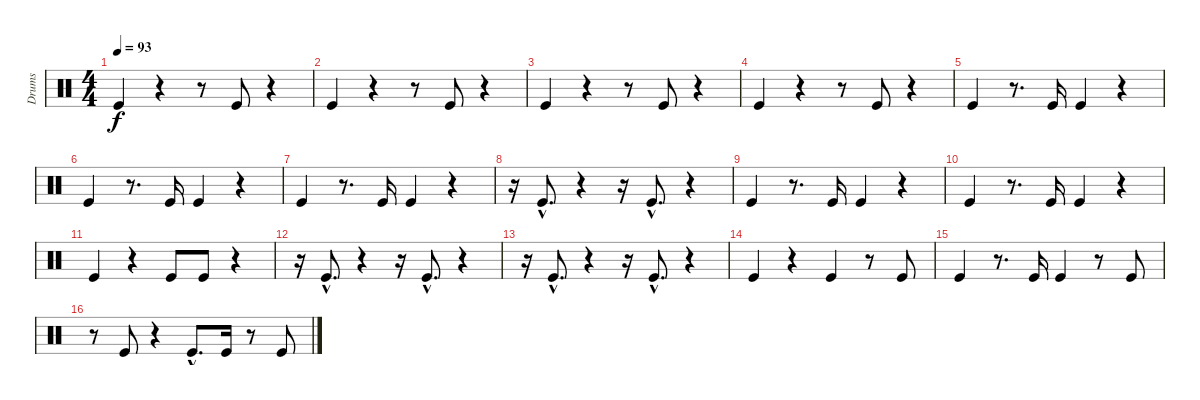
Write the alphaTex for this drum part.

\track ("Drums" "Drums") {instrument percussion}
\staff {score}
\articulation defaults
\ts (4 4)
\tempo 93
\clef neutral
\ks c "Kick (hit)".4{dy f}
r.4 r.8 "Kick (hit)".8 r.4 |
"Kick (hit)".4 r.4 r.8 "Kick (hit)".8 r.4 |
"Kick (hit)".4 r.4 r.8 "Kick (hit)".8 r.4 |
"Kick (hit)".4 r.4 r.8 "Kick (hit)".8 r.4 |
"Kick (hit)".4 r.8{d} "Kick (hit)".16 "Kick (hit)".4 r.4 |
"Kick (hit)".4 r.8{d} "Kick (hit)".16 "Kick (hit)".4 r.4 |
"Kick (hit)".4 r.8{d} "Kick (hit)".16 "Kick (hit)".4 r.4 |
r.16 "Kick (hit)"{hac}.8{d} r.4 r.16 "Kick (hit)"{hac}.8{d} r.4 |
"Kick (hit)".4 r.8{d} "Kick (hit)".16 "Kick (hit)".4 r.4 |
"Kick (hit)".4 r.8{d} "Kick (hit)".16 "Kick (hit)".4 r.4 |
"Kick (hit)".4 r.4 "Kick (hit)".8 "Kick (hit)".8 r.4 |
r.16 "Kick (hit)"{hac}.8{d} r.4 r.16 "Kick (hit)"{hac}.8{d} r.4 |
r.16 "Kick (hit)"{hac}.8{d} r.4 r.16 "Kick (hit)"{hac}.8{d} r.4 |
"Kick (hit)".4 r.4 "Kick (hit)".4 r.8 "Kick (hit)".8 |
"Kick (hit)".4 r.8{d} "Kick (hit)".16 "Kick (hit)".4 r.8 "Kick (hit)".8 |
r.8 "Kick (hit)".8 r.4 "Kick (hit)"{hac}.8{d} "Kick (hit)".16 r.8 "Kick (hit)".8
